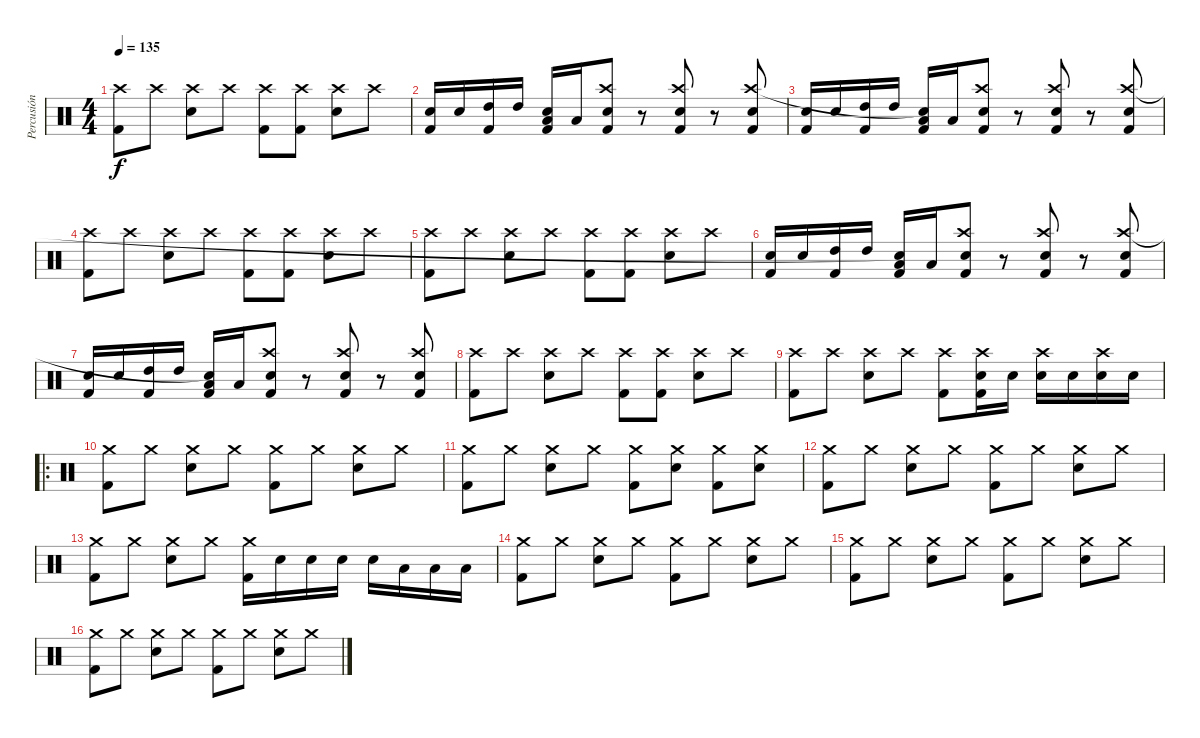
\track ("Percusión" "Percusión") {instrument percussion}
\staff {score}
\articulation defaults
\ts (4 4)
\tempo 135
\clef neutral
\ks c
("Kick (hit) 2" "Crash high (hit)").8{dy f} "Crash high (hit)".8 ("Snare (hit) 2" "Crash high (hit)").8 "Crash high (hit)".8 ("Kick (hit) 2" "Crash high (hit)").8 ("Kick (hit) 2" "Crash high (hit)").8 ("Snare (hit) 2" "Crash high (hit)").8 "Crash high (hit)".8 |
("Kick (hit) 2" "Snare (hit) 2").16 "Snare (hit) 2".16 ("Kick (hit) 2" "High Tom (hit)").16 "High Tom (hit)".16 ("Kick (hit) 2" "Low Tom (hit)" "Snare (hit)"{t}).16 "Low Tom (hit)".16 ("Kick (hit) 2" "Snare (hit) 2" "Crash high (hit)").8 r.8 ("Kick (hit) 2" "Snare (hit) 2" "Crash high (hit)").8 r.8 ("Kick (hit) 2" "Snare (hit) 2" "Crash high (hit)").8 |
("Kick (hit) 2" "Snare (hit) 2").16 "Snare (hit) 2".16 ("Kick (hit) 2" "High Tom (hit)").16 "High Tom (hit)".16 ("Kick (hit) 2" "Low Tom (hit)" "Snare (hit)"{t}).16 "Low Tom (hit)".16 ("Kick (hit) 2" "Snare (hit) 2" "Crash high (hit)").8 r.8 ("Kick (hit) 2" "Snare (hit) 2" "Crash high (hit)").8 r.8 ("Kick (hit) 2" "Snare (hit) 2" "Crash high (hit)").8 |
("Kick (hit) 2" "Crash high (hit)").8 "Crash high (hit)".8 ("Snare (hit) 2" "Crash high (hit)").8 "Crash high (hit)".8 ("Kick (hit) 2" "Crash high (hit)").8 ("Kick (hit) 2" "Crash high (hit)").8 ("Snare (hit) 2" "Crash high (hit)").8 "Crash high (hit)".8 |
("Kick (hit) 2" "Crash high (hit)").8 "Crash high (hit)".8 ("Snare (hit) 2" "Crash high (hit)").8 "Crash high (hit)".8 ("Kick (hit) 2" "Crash high (hit)").8 ("Kick (hit) 2" "Crash high (hit)").8 ("Snare (hit) 2" "Crash high (hit)").8 "Crash high (hit)".8 |
("Kick (hit) 2" "Snare (hit) 2").16 "Snare (hit) 2".16 ("Kick (hit) 2" "High Tom (hit)").16 "High Tom (hit)".16 ("Kick (hit) 2" "Low Tom (hit)" "Snare (hit)"{t}).16 "Low Tom (hit)".16 ("Kick (hit) 2" "Snare (hit) 2" "Crash high (hit)").8 r.8 ("Kick (hit) 2" "Snare (hit) 2" "Crash high (hit)").8 r.8 ("Kick (hit) 2" "Snare (hit) 2" "Crash high (hit)").8 |
("Kick (hit) 2" "Snare (hit) 2").16 "Snare (hit) 2".16 ("Kick (hit) 2" "High Tom (hit)").16 "High Tom (hit)".16 ("Kick (hit) 2" "Low Tom (hit)" "Snare (hit)"{t}).16 "Low Tom (hit)".16 ("Kick (hit) 2" "Snare (hit) 2" "Crash high (hit)").8 r.8 ("Kick (hit) 2" "Snare (hit) 2" "Crash high (hit)").8 r.8 ("Kick (hit) 2" "Snare (hit) 2" "Crash high (hit)").8 |
("Kick (hit) 2" "Crash high (hit)").8 "Crash high (hit)".8 ("Snare (hit) 2" "Crash high (hit)").8 "Crash high (hit)".8 ("Kick (hit) 2" "Crash high (hit)").8 ("Kick (hit) 2" "Crash high (hit)").8 ("Snare (hit) 2" "Crash high (hit)").8 "Crash high (hit)".8 |
("Kick (hit) 2" "Crash high (hit)").8 "Crash high (hit)".8 ("Snare (hit) 2" "Crash high (hit)").8 "Crash high (hit)".8 ("Kick (hit) 2" "Crash high (hit)").8 ("Kick (hit) 2" "Snare (hit) 2" "Crash high (hit)").16 "Snare (hit) 2".16 ("Snare (hit) 2" "Crash high (hit)").16 "Snare (hit) 2".16 ("Snare (hit) 2" "Crash high (hit)").16 "Snare (hit) 2".16 |
\ro
("Kick (hit) 2" "Crash medium (hit)").8 "Crash medium (hit)".8 ("Snare (hit) 2" "Crash medium (hit)").8 "Crash medium (hit)".8 ("Kick (hit) 2" "Crash medium (hit)").8 "Crash medium (hit)".8 ("Snare (hit) 2" "Crash medium (hit)").8 "Crash medium (hit)".8 |
("Kick (hit) 2" "Crash medium (hit)").8 "Crash medium (hit)".8 ("Snare (hit) 2" "Crash medium (hit)").8 "Crash medium (hit)".8 ("Kick (hit) 2" "Crash medium (hit)").8 ("Snare (hit) 2" "Crash medium (hit)").8 ("Kick (hit) 2" "Crash medium (hit)").8 ("Snare (hit) 2" "Crash medium (hit)").8 |
("Kick (hit) 2" "Crash medium (hit)").8 "Crash medium (hit)".8 ("Snare (hit) 2" "Crash medium (hit)").8 "Crash medium (hit)".8 ("Kick (hit) 2" "Crash medium (hit)").8 "Crash medium (hit)".8 ("Snare (hit) 2" "Crash medium (hit)").8 "Crash medium (hit)".8 |
("Kick (hit) 2" "Crash medium (hit)").8 "Crash medium (hit)".8 ("Snare (hit) 2" "Crash medium (hit)").8 "Crash medium (hit)".8 ("Kick (hit) 2" "Crash medium (hit)").16 "Snare (hit) 2".16 "Snare (hit) 2".16 "Snare (hit) 2".16 "Snare (hit) 2".16 "Low Tom (hit)".16 "Low Tom (hit)".16 "Low Tom (hit)".16 |
("Kick (hit) 2" "Crash medium (hit)").8 "Crash medium (hit)".8 ("Snare (hit) 2" "Crash medium (hit)").8 "Crash medium (hit)".8 ("Kick (hit) 2" "Crash medium (hit)").8 "Crash medium (hit)".8 ("Snare (hit) 2" "Crash medium (hit)").8 "Crash medium (hit)".8 |
("Kick (hit) 2" "Crash medium (hit)").8 "Crash medium (hit)".8 ("Snare (hit) 2" "Crash medium (hit)").8 "Crash medium (hit)".8 ("Kick (hit) 2" "Crash medium (hit)").8 "Crash medium (hit)".8 ("Snare (hit) 2" "Crash medium (hit)").8 "Crash medium (hit)".8 |
("Kick (hit) 2" "Crash medium (hit)").8 "Crash medium (hit)".8 ("Snare (hit) 2" "Crash medium (hit)").8 "Crash medium (hit)".8 ("Kick (hit) 2" "Crash medium (hit)").8 "Crash medium (hit)".8 ("Snare (hit) 2" "Crash medium (hit)").8 "Crash medium (hit)".8
